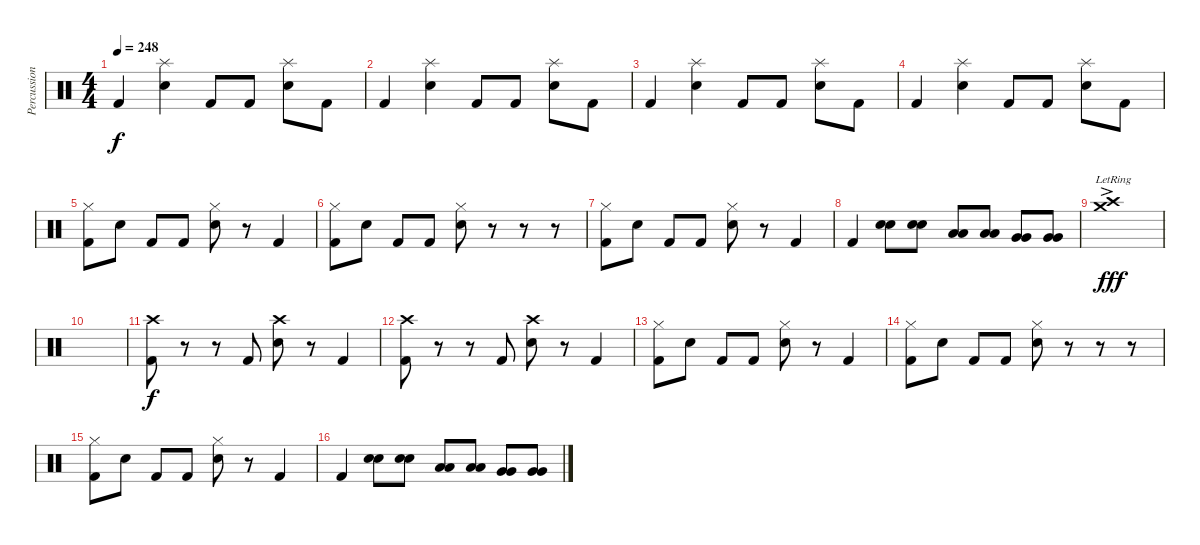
\track ("Percussion" "Percussion") {instrument percussion}
\staff {score}
\articulation defaults
\ts (4 4)
\tempo 248
\clef neutral
\ks c "Kick (hit) 2".4{dy f}
("Splash (hit)" "Snare (hit) 2").4 "Kick (hit) 2".8 "Kick (hit) 2".8 ("Splash (hit)" "Snare (hit) 2").8 "Kick (hit) 2".8 |
"Kick (hit) 2".4 ("Splash (hit)" "Snare (hit) 2").4 "Kick (hit) 2".8 "Kick (hit) 2".8 ("Splash (hit)" "Snare (hit) 2").8 "Kick (hit) 2".8 |
"Kick (hit) 2".4 ("Splash (hit)" "Snare (hit) 2").4 "Kick (hit) 2".8 "Kick (hit) 2".8 ("Splash (hit)" "Snare (hit) 2").8 "Kick (hit) 2".8 |
"Kick (hit) 2".4 ("Splash (hit)" "Snare (hit) 2").4 "Kick (hit) 2".8 "Kick (hit) 2".8 ("Splash (hit)" "Snare (hit) 2").8 "Kick (hit) 2".8 |
("Hi-Hat (closed)" "Kick (hit) 2").8 "Snare (hit) 2".8 "Kick (hit) 2".8 "Kick (hit) 2".8 ("Hi-Hat (closed)" "Snare (hit) 2").8 r.8 "Kick (hit) 2".4 |
("Hi-Hat (closed)" "Kick (hit) 2").8 "Snare (hit) 2".8 "Kick (hit) 2".8 "Kick (hit) 2".8 ("Hi-Hat (closed)" "Snare (hit) 2").8 r.8 r.8 r.8 |
("Hi-Hat (closed)" "Kick (hit) 2").8 "Snare (hit) 2".8 "Kick (hit) 2".8 "Kick (hit) 2".8 ("Hi-Hat (closed)" "Snare (hit) 2").8 r.8 "Kick (hit) 2".4 |
"Kick (hit) 2".4 ("Snare (hit) 2" "Snare (hit) 2").8 ("Snare (hit) 2" "Snare (hit) 2").8 ("Low Tom (hit)" "Low Tom (hit)").8 ("Low Tom (hit)" "Low Tom (hit)").8 ("Very Low Tom (hit)" "Very Low Tom (hit)").8 ("Very Low Tom (hit)" "Very Low Tom (hit)").8 |
("Crash high (hit)"{ac lr} "Crash medium (hit)"{ac lr}).1{dy fff} |
|
("Crash high (hit)" "Kick (hit) 2").8{dy f} r.8 r.8 "Kick (hit) 2".8 ("Crash high (hit)" "Snare (hit) 2").8 r.8 "Kick (hit) 2".4 |
("Crash high (hit)" "Kick (hit) 2").8 r.8 r.8 "Kick (hit) 2".8 ("Crash high (hit)" "Snare (hit) 2").8 r.8 "Kick (hit) 2".4 |
("Hi-Hat (closed)" "Kick (hit) 2").8 "Snare (hit) 2".8 "Kick (hit) 2".8 "Kick (hit) 2".8 ("Hi-Hat (closed)" "Snare (hit) 2").8 r.8 "Kick (hit) 2".4 |
("Hi-Hat (closed)" "Kick (hit) 2").8 "Snare (hit) 2".8 "Kick (hit) 2".8 "Kick (hit) 2".8 ("Hi-Hat (closed)" "Snare (hit) 2").8 r.8 r.8 r.8 |
("Hi-Hat (closed)" "Kick (hit) 2").8 "Snare (hit) 2".8 "Kick (hit) 2".8 "Kick (hit) 2".8 ("Hi-Hat (closed)" "Snare (hit) 2").8 r.8 "Kick (hit) 2".4 |
"Kick (hit) 2".4 ("Snare (hit) 2" "Snare (hit) 2").8 ("Snare (hit) 2" "Snare (hit) 2").8 ("Low Tom (hit)" "Low Tom (hit)").8 ("Low Tom (hit)" "Low Tom (hit)").8 ("Very Low Tom (hit)" "Very Low Tom (hit)").8 ("Very Low Tom (hit)" "Very Low Tom (hit)").8
